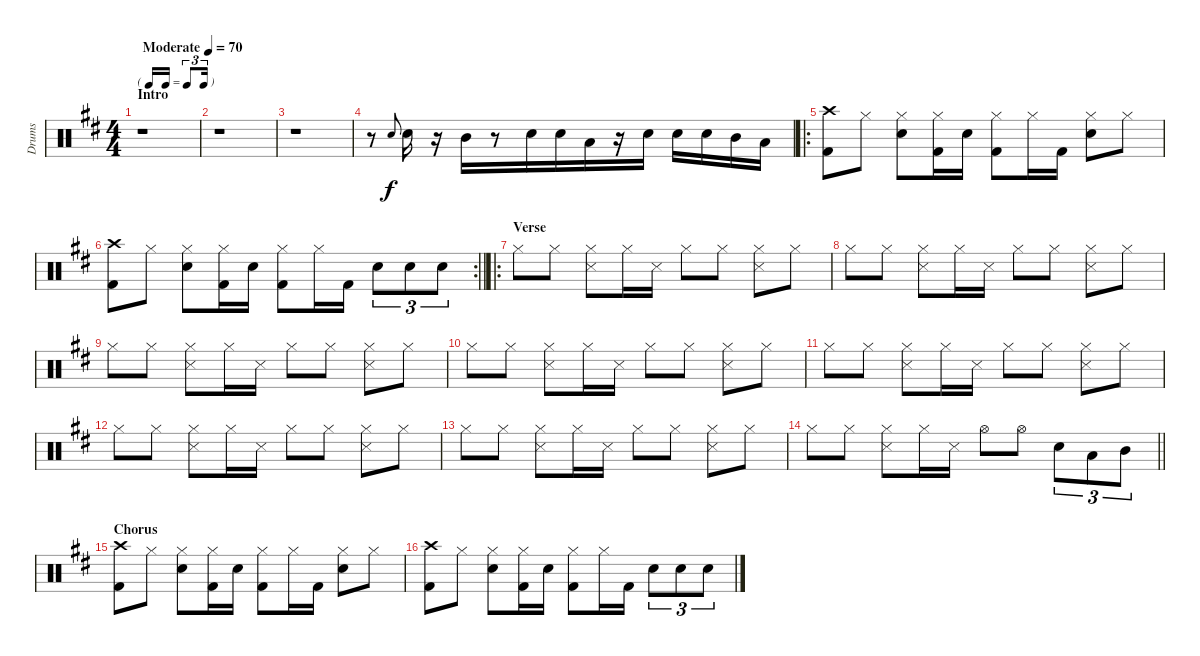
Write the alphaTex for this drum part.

\track ("Drums" "Drums") {instrument percussion}
\staff {score}
\articulation defaults
\ts (4 4)
\tf triplet16th
\section ("" "Intro")
\tempo (70 "Moderate")
\clef neutral
\ks bminor
r.1{dy f} |
r.1 |
r.1 |
r.8 "Snare (hit) 2".8{gr onbeat} "Snare (hit) 2".16 r.16 "Mid Tom (hit)".16 r.8 "Snare (hit) 2".16{beam merge} "Snare (hit) 2".16 "Low Tom (hit)".16 r.16 "Snare (hit) 2".16 "Snare (hit) 2".16 "Snare (hit) 2".16 "Mid Tom (hit)".16 "Low Tom (hit)".16 |
\ro
("Crash high (hit)" "Kick (hit) 2").8 "Hi-Hat (closed)".8 ("Hi-Hat (closed)" "Snare (hit) 2").8 ("Hi-Hat (closed)" "Kick (hit) 2").16 "Snare (hit) 2".16 ("Hi-Hat (closed)" "Kick (hit) 2").8 "Hi-Hat (closed)".16 "Kick (hit) 2".16 ("Hi-Hat (closed)" "Snare (hit) 2").8 "Hi-Hat (closed)".8 |
\rc 2
\barLineRight lightlight
("Crash high (hit)" "Kick (hit) 2").8 "Hi-Hat (closed)".8 ("Hi-Hat (closed)" "Snare (hit) 2").8 ("Hi-Hat (closed)" "Kick (hit) 2").16 "Snare (hit) 2".16 ("Hi-Hat (closed)" "Kick (hit) 2").8 "Hi-Hat (closed)".16 "Kick (hit) 2".16 "Snare (hit) 2".8{tu (3 2)} "Snare (hit) 2".8{tu (3 2)} "Snare (hit) 2".8{tu (3 2)} |
\ro
\section ("" "Verse")
"Hi-Hat (closed)".8 "Hi-Hat (closed)".8 ("Hi-Hat (closed)" "Snare (side stick) 3").8 "Hi-Hat (closed)".16 "Snare (side stick) 3".16 "Hi-Hat (closed)".8 "Hi-Hat (closed)".8 ("Hi-Hat (closed)" "Snare (side stick) 3").8 "Hi-Hat (closed)".8 |
"Hi-Hat (closed)".8 "Hi-Hat (closed)".8 ("Hi-Hat (closed)" "Snare (side stick) 3").8 "Hi-Hat (closed)".16 "Snare (side stick) 3".16 "Hi-Hat (closed)".8 "Hi-Hat (closed)".8 ("Hi-Hat (closed)" "Snare (side stick) 3").8 "Hi-Hat (closed)".8 |
"Hi-Hat (closed)".8 "Hi-Hat (closed)".8 ("Hi-Hat (closed)" "Snare (side stick) 3").8 "Hi-Hat (closed)".16 "Snare (side stick) 3".16 "Hi-Hat (closed)".8 "Hi-Hat (closed)".8 ("Hi-Hat (closed)" "Snare (side stick) 3").8 "Hi-Hat (closed)".8 |
"Hi-Hat (closed)".8 "Hi-Hat (closed)".8 ("Hi-Hat (closed)" "Snare (side stick) 3").8 "Hi-Hat (closed)".16 "Snare (side stick) 3".16 "Hi-Hat (closed)".8 "Hi-Hat (closed)".8 ("Hi-Hat (closed)" "Snare (side stick) 3").8 "Hi-Hat (closed)".8 |
"Hi-Hat (closed)".8 "Hi-Hat (closed)".8 ("Hi-Hat (closed)" "Snare (side stick) 3").8 "Hi-Hat (closed)".16 "Snare (side stick) 3".16 "Hi-Hat (closed)".8 "Hi-Hat (closed)".8 ("Hi-Hat (closed)" "Snare (side stick) 3").8 "Hi-Hat (closed)".8 |
"Hi-Hat (closed)".8 "Hi-Hat (closed)".8 ("Hi-Hat (closed)" "Snare (side stick) 3").8 "Hi-Hat (closed)".16 "Snare (side stick) 3".16 "Hi-Hat (closed)".8 "Hi-Hat (closed)".8 ("Hi-Hat (closed)" "Snare (side stick) 3").8 "Hi-Hat (closed)".8 |
"Hi-Hat (closed)".8 "Hi-Hat (closed)".8 ("Hi-Hat (closed)" "Snare (side stick) 3").8 "Hi-Hat (closed)".16 "Snare (side stick) 3".16 "Hi-Hat (closed)".8 "Hi-Hat (closed)".8 ("Hi-Hat (closed)" "Snare (side stick) 3").8 "Hi-Hat (closed)".8 |
\barLineRight lightlight "Hi-Hat (closed)".8 "Hi-Hat (closed)".8
("Hi-Hat (closed)" "Snare (side stick) 3").8 "Hi-Hat (closed)".16 "Snare (side stick) 3".16 "Hi-Hat (open)".8 "Hi-Hat (open)".8 "Snare (hit) 2".8{tu (3 2)} "Low Tom (hit)".8{tu (3 2)} "Mid Tom (hit)".8{tu (3 2)} |
\section ("" "Chorus")
("Crash high (hit)" "Kick (hit) 2").8 "Hi-Hat (closed)".8 ("Hi-Hat (closed)" "Snare (hit) 2").8 ("Hi-Hat (closed)" "Kick (hit) 2").16 "Snare (hit) 2".16 ("Hi-Hat (closed)" "Kick (hit) 2").8 "Hi-Hat (closed)".16 "Kick (hit) 2".16 ("Hi-Hat (closed)" "Snare (hit) 2").8 "Hi-Hat (closed)".8 |
("Crash high (hit)" "Kick (hit) 2").8 "Hi-Hat (closed)".8 ("Hi-Hat (closed)" "Snare (hit) 2").8 ("Hi-Hat (closed)" "Kick (hit) 2").16 "Snare (hit) 2".16 ("Hi-Hat (closed)" "Kick (hit) 2").8 "Hi-Hat (closed)".16 "Kick (hit) 2".16 "Snare (hit) 2".8{tu (3 2)} "Snare (hit) 2".8{tu (3 2)} "Snare (hit) 2".8{tu (3 2)}
